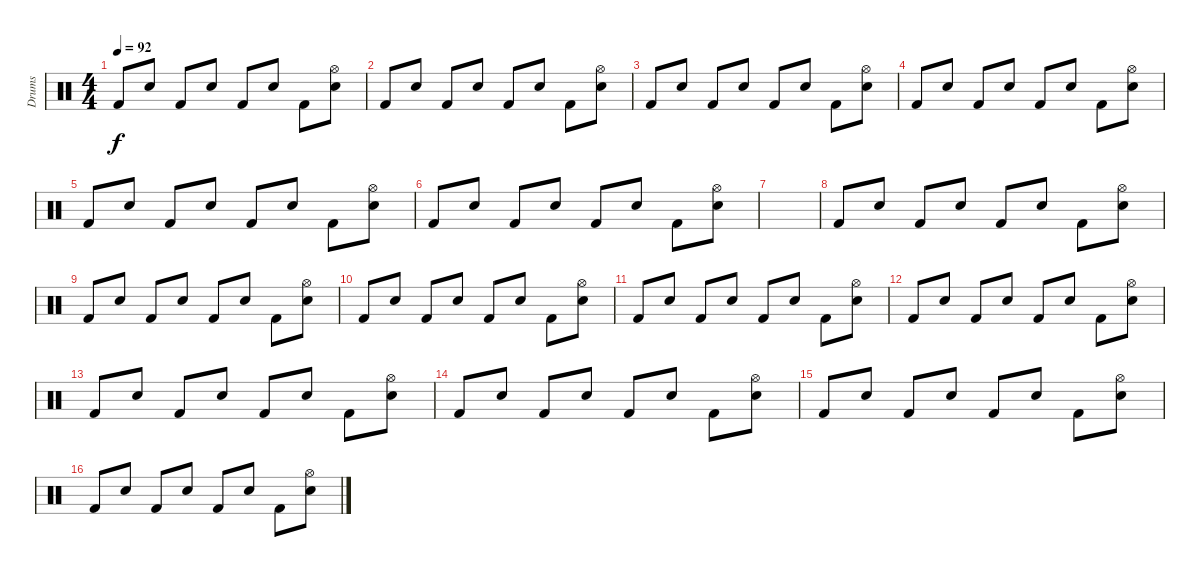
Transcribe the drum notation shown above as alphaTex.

\track ("Drums" "Drums") {instrument percussion}
\staff {score}
\articulation defaults
\ts (4 4)
\tempo 92
\clef neutral
\ks c "Kick (hit) 2".8{dy f} "Snare (hit) 2".8 "Kick (hit) 2".8 "Snare (hit) 2".8 "Kick (hit) 2".8 "Snare (hit) 2".8 "Kick (hit) 2".8
("Hi-Hat (open)" "Snare (hit) 2").8 |
"Kick (hit) 2".8 "Snare (hit) 2".8 "Kick (hit) 2".8 "Snare (hit) 2".8 "Kick (hit) 2".8 "Snare (hit) 2".8 "Kick (hit) 2".8 ("Hi-Hat (open)" "Snare (hit) 2").8 |
"Kick (hit) 2".8 "Snare (hit) 2".8 "Kick (hit) 2".8 "Snare (hit) 2".8 "Kick (hit) 2".8 "Snare (hit) 2".8 "Kick (hit) 2".8 ("Hi-Hat (open)" "Snare (hit) 2").8 |
"Kick (hit) 2".8 "Snare (hit) 2".8 "Kick (hit) 2".8 "Snare (hit) 2".8 "Kick (hit) 2".8 "Snare (hit) 2".8 "Kick (hit) 2".8 ("Hi-Hat (open)" "Snare (hit) 2").8 |
"Kick (hit) 2".8 "Snare (hit) 2".8 "Kick (hit) 2".8 "Snare (hit) 2".8 "Kick (hit) 2".8 "Snare (hit) 2".8 "Kick (hit) 2".8 ("Hi-Hat (open)" "Snare (hit) 2").8 |
"Kick (hit) 2".8 "Snare (hit) 2".8 "Kick (hit) 2".8 "Snare (hit) 2".8 "Kick (hit) 2".8 "Snare (hit) 2".8 "Kick (hit) 2".8 ("Hi-Hat (open)" "Snare (hit) 2").8 |
|
"Kick (hit) 2".8 "Snare (hit) 2".8 "Kick (hit) 2".8 "Snare (hit) 2".8 "Kick (hit) 2".8 "Snare (hit) 2".8 "Kick (hit) 2".8 ("Hi-Hat (open)" "Snare (hit) 2").8 |
"Kick (hit) 2".8 "Snare (hit) 2".8 "Kick (hit) 2".8 "Snare (hit) 2".8 "Kick (hit) 2".8 "Snare (hit) 2".8 "Kick (hit) 2".8 ("Hi-Hat (open)" "Snare (hit) 2").8 |
"Kick (hit) 2".8 "Snare (hit) 2".8 "Kick (hit) 2".8 "Snare (hit) 2".8 "Kick (hit) 2".8 "Snare (hit) 2".8 "Kick (hit) 2".8 ("Hi-Hat (open)" "Snare (hit) 2").8 |
"Kick (hit) 2".8 "Snare (hit) 2".8 "Kick (hit) 2".8 "Snare (hit) 2".8 "Kick (hit) 2".8 "Snare (hit) 2".8 "Kick (hit) 2".8 ("Hi-Hat (open)" "Snare (hit) 2").8 |
"Kick (hit) 2".8 "Snare (hit) 2".8 "Kick (hit) 2".8 "Snare (hit) 2".8 "Kick (hit) 2".8 "Snare (hit) 2".8 "Kick (hit) 2".8 ("Hi-Hat (open)" "Snare (hit) 2").8 |
"Kick (hit) 2".8 "Snare (hit) 2".8 "Kick (hit) 2".8 "Snare (hit) 2".8 "Kick (hit) 2".8 "Snare (hit) 2".8 "Kick (hit) 2".8 ("Hi-Hat (open)" "Snare (hit) 2").8 |
"Kick (hit) 2".8 "Snare (hit) 2".8 "Kick (hit) 2".8 "Snare (hit) 2".8 "Kick (hit) 2".8 "Snare (hit) 2".8 "Kick (hit) 2".8 ("Hi-Hat (open)" "Snare (hit) 2").8 |
"Kick (hit) 2".8 "Snare (hit) 2".8 "Kick (hit) 2".8 "Snare (hit) 2".8 "Kick (hit) 2".8 "Snare (hit) 2".8 "Kick (hit) 2".8 ("Hi-Hat (open)" "Snare (hit) 2").8 |
"Kick (hit) 2".8 "Snare (hit) 2".8 "Kick (hit) 2".8 "Snare (hit) 2".8 "Kick (hit) 2".8 "Snare (hit) 2".8 "Kick (hit) 2".8 ("Hi-Hat (open)" "Snare (hit) 2").8
